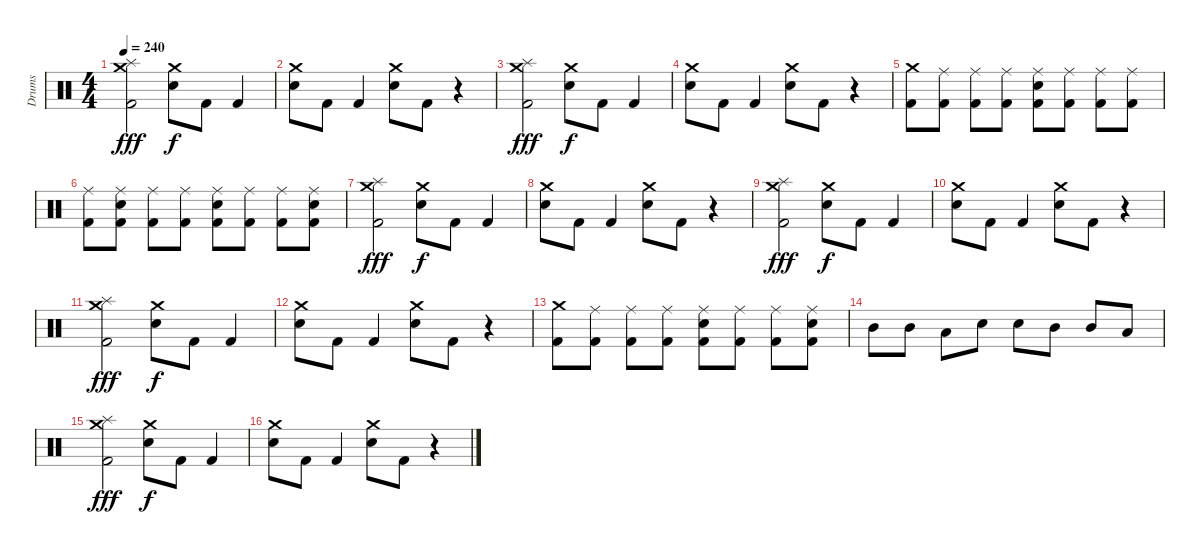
\track ("Drums" "Drums") {instrument percussion}
\staff {score}
\articulation defaults
\ts (4 4)
\tempo 240
\clef neutral
\ks c
("Splash (hit)" "Crash medium (hit)" "Kick (hit) 2").2{dy fff} ("Crash medium (hit)" "Electric Snare (hit)").8{dy f} "Kick (hit) 2".8 "Kick (hit) 2".4 |
("Crash medium (hit)" "Electric Snare (hit)").8 "Kick (hit) 2".8 "Kick (hit) 2".4 ("Crash medium (hit)" "Electric Snare (hit)").8 "Kick (hit) 2".8 r.4 |
("Splash (hit)" "Crash medium (hit)" "Kick (hit) 2").2{dy fff} ("Crash medium (hit)" "Electric Snare (hit)").8{dy f} "Kick (hit) 2".8 "Kick (hit) 2".4 |
("Crash medium (hit)" "Electric Snare (hit)").8 "Kick (hit) 2".8 "Kick (hit) 2".4 ("Crash medium (hit)" "Electric Snare (hit)").8 "Kick (hit) 2".8 r.4 |
("Crash medium (hit)" "Kick (hit) 2").8 ("Ride (middle)" "Kick (hit) 2").8 ("Ride (middle)" "Kick (hit) 2").8 ("Ride (middle)" "Kick (hit) 2").8 ("Ride (middle)" "Electric Snare (hit)" "Kick (hit) 2").8 ("Ride (middle)" "Kick (hit) 2").8 ("Ride (middle)" "Kick (hit) 2").8 ("Ride (middle)" "Kick (hit) 2").8 |
("Ride (middle)" "Kick (hit) 2").8 ("Ride (middle)" "Electric Snare (hit)" "Kick (hit) 2").8 ("Ride (middle)" "Kick (hit) 2").8 ("Ride (middle)" "Kick (hit) 2").8 ("Ride (middle)" "Electric Snare (hit)" "Kick (hit) 2").8 ("Ride (middle)" "Kick (hit) 2").8 ("Ride (middle)" "Kick (hit) 2").8 ("Ride (middle)" "Electric Snare (hit)" "Kick (hit) 2").8 |
("Splash (hit)" "Crash medium (hit)" "Kick (hit) 2").2{dy fff} ("Crash medium (hit)" "Electric Snare (hit)").8{dy f} "Kick (hit) 2".8 "Kick (hit) 2".4 |
("Crash medium (hit)" "Electric Snare (hit)").8 "Kick (hit) 2".8 "Kick (hit) 2".4 ("Crash medium (hit)" "Electric Snare (hit)").8 "Kick (hit) 2".8 r.4 |
("Splash (hit)" "Crash medium (hit)" "Kick (hit) 2").2{dy fff} ("Crash medium (hit)" "Electric Snare (hit)").8{dy f} "Kick (hit) 2".8 "Kick (hit) 2".4 |
("Crash medium (hit)" "Electric Snare (hit)").8 "Kick (hit) 2".8 "Kick (hit) 2".4 ("Crash medium (hit)" "Electric Snare (hit)").8 "Kick (hit) 2".8 r.4 |
("Splash (hit)" "Crash medium (hit)" "Kick (hit) 2").2{dy fff} ("Crash medium (hit)" "Electric Snare (hit)").8{dy f} "Kick (hit) 2".8 "Kick (hit) 2".4 |
("Crash medium (hit)" "Electric Snare (hit)").8 "Kick (hit) 2".8 "Kick (hit) 2".4 ("Crash medium (hit)" "Electric Snare (hit)").8 "Kick (hit) 2".8 r.4 |
("Crash medium (hit)" "Kick (hit) 2").8 ("Ride (middle)" "Kick (hit) 2").8 ("Ride (middle)" "Kick (hit) 2").8 ("Ride (middle)" "Kick (hit) 2").8 ("Ride (middle)" "Electric Snare (hit)" "Kick (hit) 2").8 ("Ride (middle)" "Kick (hit) 2").8 ("Ride (middle)" "Kick (hit) 2").8 ("Ride (middle)" "Electric Snare (hit)" "Kick (hit) 2").8 |
"Mid Tom (hit)".8 "Mid Tom (hit)".8 "Low Tom (hit)".8 "Electric Snare (hit)".8 "Electric Snare (hit)".8 "Mid Tom (hit)".8 "Mid Tom (hit)".8 "Low Tom (hit)".8 |
("Splash (hit)" "Crash medium (hit)" "Kick (hit) 2").2{dy fff} ("Crash medium (hit)" "Electric Snare (hit)").8{dy f} "Kick (hit) 2".8 "Kick (hit) 2".4 |
("Crash medium (hit)" "Electric Snare (hit)").8 "Kick (hit) 2".8 "Kick (hit) 2".4 ("Crash medium (hit)" "Electric Snare (hit)").8 "Kick (hit) 2".8 r.4
